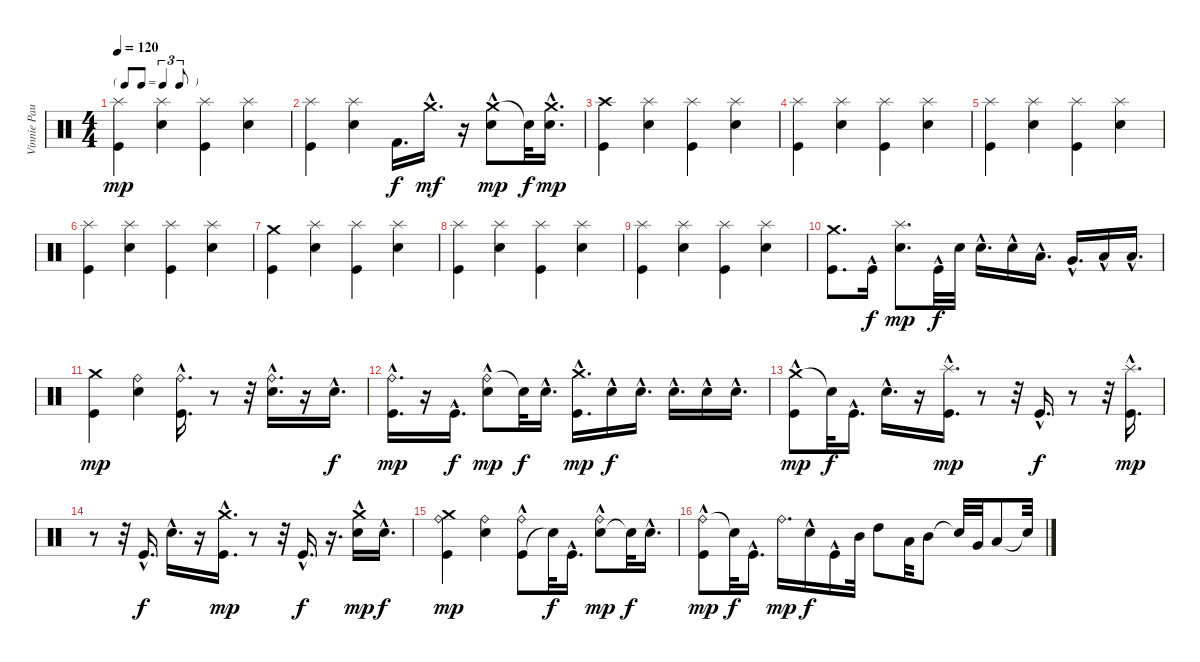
\track ("Vinnie Paul (Drums)" "Vinnie Pau") {instrument percussion}
\staff {score}
\articulation defaults
\ts (4 4)
\tf triplet8th
\tempo 120
\clef neutral
\ks c
("Kick (hit)" "Splash (hit)").4{dy mp} ("Electric Snare (hit)" "Splash (hit)").4 ("Kick (hit)" "Splash (hit)").4 ("Electric Snare (hit)" "Splash (hit)").4 |
("Kick (hit)" "Splash (hit)").4 ("Electric Snare (hit)" "Splash (hit)").4 "Kick (hit) 2".16{d dy f} "Crash medium (hit)"{hac}.16{d dy mf} r.16 ("Crash medium (hit)"{hac} "Electric Snare (hit)").8{dy mp} "Snare (hit)"{t}.32{dy f} ("Crash medium (hit)"{hac} "Electric Snare (hit)"{hac}).16{d dy mp} |
("Kick (hit)" "Crash high (hit)").4 ("Splash (hit)" "Electric Snare (hit)").4 ("Splash (hit)" "Kick (hit)").4 ("Splash (hit)" "Electric Snare (hit)").4 |
("Kick (hit)" "Splash (hit)").4 ("Splash (hit)" "Electric Snare (hit)").4 ("Splash (hit)" "Kick (hit)").4 ("Splash (hit)" "Electric Snare (hit)").4 |
("Kick (hit)" "Splash (hit)").4 ("Electric Snare (hit)" "Splash (hit)").4 ("Kick (hit)" "Splash (hit)").4 ("Electric Snare (hit)" "Splash (hit)").4 |
("Kick (hit)" "Splash (hit)").4 ("Electric Snare (hit)" "Splash (hit)").4 ("Kick (hit)" "Splash (hit)").4 ("Electric Snare (hit)" "Splash (hit)").4 |
("Kick (hit)" "Crash medium (hit)").4 ("Splash (hit)" "Electric Snare (hit)").4 ("Splash (hit)" "Kick (hit)").4 ("Splash (hit)" "Electric Snare (hit)").4 |
("Kick (hit)" "Splash (hit)").4 ("Splash (hit)" "Electric Snare (hit)").4 ("Splash (hit)" "Kick (hit)").4 ("Splash (hit)" "Electric Snare (hit)").4 |
("Kick (hit)" "Splash (hit)").4 ("Electric Snare (hit)" "Splash (hit)").4 ("Kick (hit)" "Splash (hit)").4 ("Electric Snare (hit)" "Splash (hit)").4 |
("Kick (hit)" "Crash medium (hit)").8{d} "Kick (hit)"{hac}.16{dy f} ("Electric Snare (hit)" "Splash (hit)").8{d dy mp} "Kick (hit)"{hac}.32{dy f} "Snare (hit) 2".32 "Electric Snare (hit)"{hac}.16{d} "Electric Snare (hit)"{hac}.16 "Low Tom (hit)"{hac}.16{d} "Very Low Tom (hit)"{hac}.16{d} "Low Floor Tom (hit)"{hac}.16 "Low Floor Tom (hit)"{hac}.16{d} |
("Kick (hit)" "Crash medium (hit)").4{dy mp} ("Electric Snare (hit)" "Ride (bell)").4 ("Ride (bell)"{hac} "Kick (hit)"{hac}).16{d} r.8 r.32 ("Ride (bell)"{hac} "Electric Snare (hit)"{hac}).16{d} r.16 "Electric Snare (hit)"{hac}.16{d dy f} |
("Ride (bell)"{hac} "Kick (hit)"{hac}).16{d dy mp} r.16 "Kick (hit)"{hac}.16{d dy f} ("Ride (bell)" "Electric Snare (hit)"{hac}).8{dy mp} "Snare (hit)"{t}.32{dy f} "Electric Snare (hit)"{hac}.16{d} ("Kick (hit)" "Crash medium (hit)"{hac}).16{d dy mp} "Electric Snare (hit)"{hac}.16{dy f} "Electric Snare (hit)"{hac}.16{d} "Electric Snare (hit)"{hac}.16{d} "Electric Snare (hit)"{hac}.16 "Electric Snare (hit)"{hac}.16{d} |
("Crash medium (hit)" "Kick (hit)"{hac}).8{dy mp} "Snare (hit)"{t}.32{dy f} "Kick (hit)"{hac}.16{d} "Electric Snare (hit)"{hac}.16{d} r.16 ("Splash (hit)"{hac} "Kick (hit)"{hac}).16{d dy mp} r.8 r.32 "Kick (hit)"{hac}.16{d dy f} r.8 r.32 ("Splash (hit)"{hac} "Kick (hit)"{hac}).16{d dy mp} |
r.8 r.32 "Kick (hit)"{hac}.16{d dy f} "Electric Snare (hit)"{hac}.16{d} r.16 ("Crash medium (hit)"{hac} "Kick (hit)"{hac}).16{d dy mp} r.8 r.32 "Kick (hit)"{hac}.16{d dy f} r.16{d} ("Electric Snare (hit)"{hac} "Crash medium (hit)"{hac}).16{dy mp} "Electric Snare (hit)"{hac}.16{d dy f} |
("Crash medium (hit)" "Kick (hit)" "Ride (bell)").4{dy mp} ("Electric Snare (hit)" "Ride (bell)").4 ("Kick (hit)"{hac} "Ride (bell)").8 "Snare (hit)"{t}.32{dy f} "Kick (hit)"{hac}.16{d} ("Electric Snare (hit)"{hac} "Ride (bell)").8{dy mp} "Snare (hit)"{t}.32{dy f} "Electric Snare (hit)"{hac}.16{d} |
("Ride (bell)" "Kick (hit)"{hac}).8{dy mp} "Snare (hit)"{t}.32{dy f} "Kick (hit)"{hac}.16{d} "Ride (bell)".16{d dy mp} "Electric Snare (hit)"{hac}.16{dy f} "Kick (hit)"{hac}.16 "Mid Tom (hit)".32 "High Tom (hit)".8 "Low Tom (hit)".32 "Mid Tom (hit)".8 "Snare (hit)"{t}.32 "Very Low Tom (hit)".32 "Low Tom (hit)".8 "Snare (hit)"{t}.32
